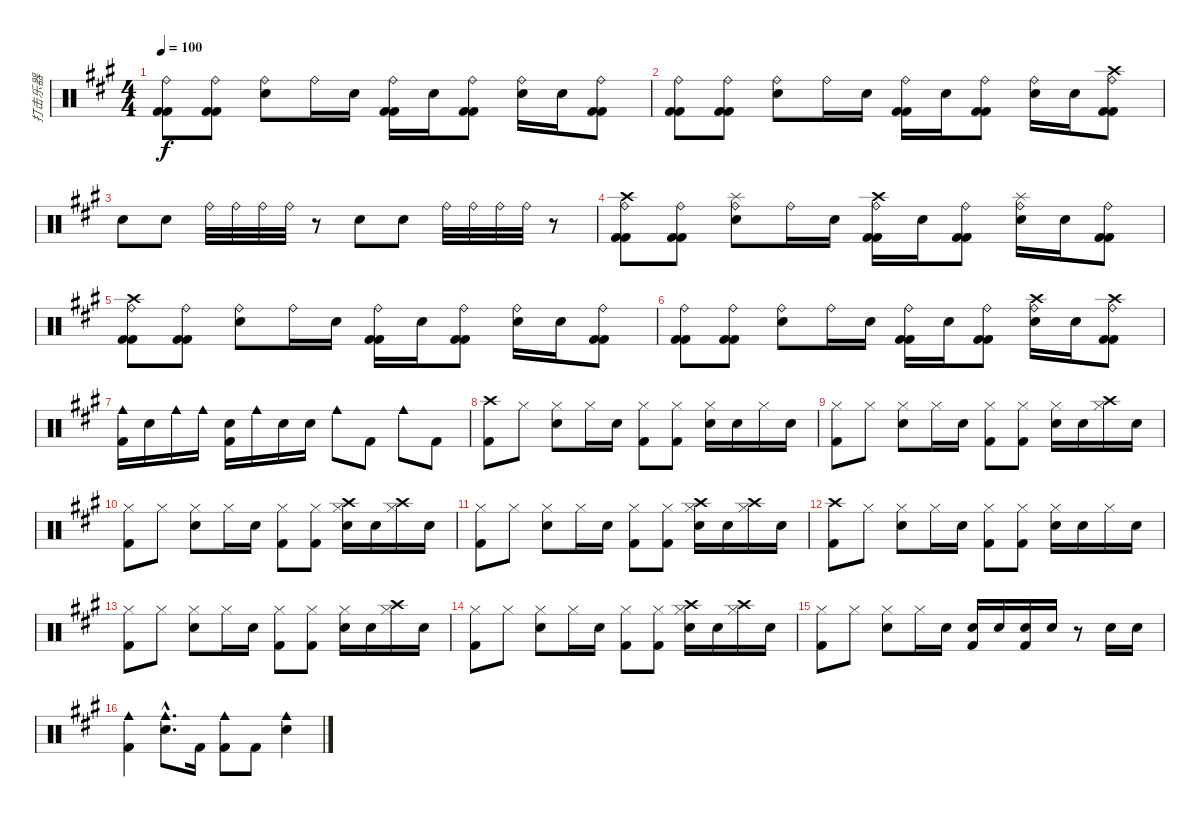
\track ("打击乐器" "打击乐器") {instrument percussion}
\staff {score}
\articulation defaults
\ts (4 4)
\tempo 100
\clef neutral
\ks a
("Ride (bell)" "Kick (hit) 2" "Kick (hit) 2").8{dy f} ("Ride (bell)" "Kick (hit) 2" "Kick (hit) 2").8 ("Ride (bell)" "Electric Snare (hit)").8 "Ride (bell)".16 "Electric Snare (hit)".16 ("Ride (bell)" "Kick (hit) 2" "Kick (hit) 2").16 "Electric Snare (hit)".16 ("Ride (bell)" "Kick (hit) 2" "Kick (hit) 2").8 ("Ride (bell)" "Electric Snare (hit)").16 "Electric Snare (hit)".16 ("Ride (bell)" "Kick (hit) 2" "Kick (hit) 2").8 |
("Ride (bell)" "Kick (hit) 2" "Kick (hit) 2").8 ("Ride (bell)" "Kick (hit) 2" "Kick (hit) 2").8 ("Ride (bell)" "Electric Snare (hit)").8 "Ride (bell)".16 "Electric Snare (hit)".16 ("Ride (bell)" "Kick (hit) 2" "Kick (hit) 2").16 "Electric Snare (hit)".16 ("Ride (bell)" "Kick (hit) 2" "Kick (hit) 2").8 ("Ride (bell)" "Electric Snare (hit)").16 "Electric Snare (hit)".16 ("Ride (bell)" "Crash high (hit)" "Kick (hit) 2" "Kick (hit) 2").8 |
"Electric Snare (hit)".8 "Electric Snare (hit)".8 "Ride (bell)".32 "Ride (bell)".32 "Ride (bell)".32 "Ride (bell)".32 r.8 "Electric Snare (hit)".8 "Electric Snare (hit)".8 "Ride (bell)".32 "Ride (bell)".32 "Ride (bell)".32 "Ride (bell)".32 r.8 |
("Ride (bell)" "Crash high (hit)" "Kick (hit) 2" "Kick (hit) 2").8 ("Ride (bell)" "Kick (hit) 2" "Kick (hit) 2").8 ("Ride (bell)" "Splash (hit)" "Electric Snare (hit)").8 "Ride (bell)".16 "Electric Snare (hit)".16 ("Ride (bell)" "Crash high (hit)" "Kick (hit) 2" "Kick (hit) 2").16 "Electric Snare (hit)".16 ("Ride (bell)" "Kick (hit) 2" "Kick (hit) 2").8 ("Ride (bell)" "Splash (hit)" "Electric Snare (hit)").16 "Electric Snare (hit)".16 ("Ride (bell)" "Kick (hit) 2" "Kick (hit) 2").8 |
("Ride (bell)" "Crash high (hit)" "Kick (hit) 2" "Kick (hit) 2").8 ("Ride (bell)" "Kick (hit) 2" "Kick (hit) 2").8 ("Ride (bell)" "Electric Snare (hit)").8 "Ride (bell)".16 "Electric Snare (hit)".16 ("Ride (bell)" "Kick (hit) 2" "Kick (hit) 2").16 "Electric Snare (hit)".16 ("Ride (bell)" "Kick (hit) 2" "Kick (hit) 2").8 ("Ride (bell)" "Electric Snare (hit)").16 "Electric Snare (hit)".16 ("Ride (bell)" "Kick (hit) 2" "Kick (hit) 2").8 |
("Ride (bell)" "Kick (hit) 2" "Kick (hit) 2").8 ("Ride (bell)" "Kick (hit) 2" "Kick (hit) 2").8 ("Ride (bell)" "Electric Snare (hit)").8 "Ride (bell)".16 "Electric Snare (hit)".16 ("Ride (bell)" "Kick (hit) 2" "Kick (hit) 2").16 "Electric Snare (hit)".16 ("Ride (bell)" "Kick (hit) 2" "Kick (hit) 2").8 ("Ride (bell)" "Crash high (hit)" "Electric Snare (hit)").16 "Electric Snare (hit)".16 ("Ride (bell)" "Crash high (hit)" "Kick (hit) 2" "Kick (hit) 2").8 |
("Cowbell medium (hit)" "Kick (hit) 2").16 "Electric Snare (hit)".16 "Cowbell medium (hit)".16 "Cowbell medium (hit)".16 ("Electric Snare (hit)" "Kick (hit) 2").16 "Cowbell medium (hit)".16 "Electric Snare (hit)".16 "Electric Snare (hit)".16 "Cowbell medium (hit)".8 "Kick (hit) 2".8 "Cowbell medium (hit)".8 "Kick (hit) 2".8 |
("Crash high (hit)" "Kick (hit) 2").8 "Hi-Hat (closed)".8 ("Hi-Hat (closed)" "Electric Snare (hit)").8 "Hi-Hat (closed)".16 "Electric Snare (hit)".16 ("Hi-Hat (closed)" "Kick (hit) 2").8 ("Hi-Hat (closed)" "Kick (hit) 2").8 ("Hi-Hat (closed)" "Electric Snare (hit)").16 "Electric Snare (hit)".16 "Hi-Hat (closed)".16 "Electric Snare (hit)".16 |
("Hi-Hat (closed)" "Kick (hit) 2").8 "Hi-Hat (closed)".8 ("Hi-Hat (closed)" "Electric Snare (hit)").8 "Hi-Hat (closed)".16 "Electric Snare (hit)".16 ("Hi-Hat (closed)" "Kick (hit) 2").8 ("Hi-Hat (closed)" "Kick (hit) 2").8 ("Hi-Hat (closed)" "Electric Snare (hit)").16 "Electric Snare (hit)".16 ("Crash high (hit)" "Hi-Hat (closed)").16 "Electric Snare (hit)".16 |
("Hi-Hat (closed)" "Kick (hit) 2").8 "Hi-Hat (closed)".8 ("Hi-Hat (closed)" "Electric Snare (hit)").8 "Hi-Hat (closed)".16 "Electric Snare (hit)".16 ("Hi-Hat (closed)" "Kick (hit) 2").8 ("Hi-Hat (closed)" "Kick (hit) 2").8 ("Crash high (hit)" "Hi-Hat (closed)" "Electric Snare (hit)").16 "Electric Snare (hit)".16 ("Crash high (hit)" "Hi-Hat (closed)").16 "Electric Snare (hit)".16 |
("Hi-Hat (closed)" "Kick (hit) 2").8 "Hi-Hat (closed)".8 ("Hi-Hat (closed)" "Electric Snare (hit)").8 "Hi-Hat (closed)".16 "Electric Snare (hit)".16 ("Hi-Hat (closed)" "Kick (hit) 2").8 ("Hi-Hat (closed)" "Kick (hit) 2").8 ("Crash high (hit)" "Hi-Hat (closed)" "Electric Snare (hit)").16 "Electric Snare (hit)".16 ("Crash high (hit)" "Hi-Hat (closed)").16 "Electric Snare (hit)".16 |
("Crash high (hit)" "Kick (hit) 2").8 "Hi-Hat (closed)".8 ("Hi-Hat (closed)" "Electric Snare (hit)").8 "Hi-Hat (closed)".16 "Electric Snare (hit)".16 ("Hi-Hat (closed)" "Kick (hit) 2").8 ("Hi-Hat (closed)" "Kick (hit) 2").8 ("Hi-Hat (closed)" "Electric Snare (hit)").16 "Electric Snare (hit)".16 "Hi-Hat (closed)".16 "Electric Snare (hit)".16 |
("Hi-Hat (closed)" "Kick (hit) 2").8 "Hi-Hat (closed)".8 ("Hi-Hat (closed)" "Electric Snare (hit)").8 "Hi-Hat (closed)".16 "Electric Snare (hit)".16 ("Hi-Hat (closed)" "Kick (hit) 2").8 ("Hi-Hat (closed)" "Kick (hit) 2").8 ("Hi-Hat (closed)" "Electric Snare (hit)").16 "Electric Snare (hit)".16 ("Crash high (hit)" "Hi-Hat (closed)").16 "Electric Snare (hit)".16 |
("Hi-Hat (closed)" "Kick (hit) 2").8 "Hi-Hat (closed)".8 ("Hi-Hat (closed)" "Electric Snare (hit)").8 "Hi-Hat (closed)".16 "Electric Snare (hit)".16 ("Hi-Hat (closed)" "Kick (hit) 2").8 ("Hi-Hat (closed)" "Kick (hit) 2").8 ("Crash high (hit)" "Hi-Hat (closed)" "Electric Snare (hit)").16 "Electric Snare (hit)".16 ("Crash high (hit)" "Hi-Hat (closed)").16 "Electric Snare (hit)".16 |
("Hi-Hat (closed)" "Kick (hit) 2").8 "Hi-Hat (closed)".8 ("Hi-Hat (closed)" "Electric Snare (hit)").8 "Hi-Hat (closed)".16 "Electric Snare (hit)".16 ("Electric Snare (hit)" "Kick (hit) 2").16 "Electric Snare (hit)".16 ("Electric Snare (hit)" "Kick (hit) 2").16 "Electric Snare (hit)".16 r.8 "Electric Snare (hit)".16 "Electric Snare (hit)".16 |
("Cowbell medium (hit)" "Kick (hit) 2").4 ("Cowbell medium (hit)"{hac} "Electric Snare (hit)"{hac}).8{d} "Kick (hit) 2".16 ("Cowbell medium (hit)" "Kick (hit) 2").8 "Kick (hit) 2".8 ("Cowbell medium (hit)" "Electric Snare (hit)").4
